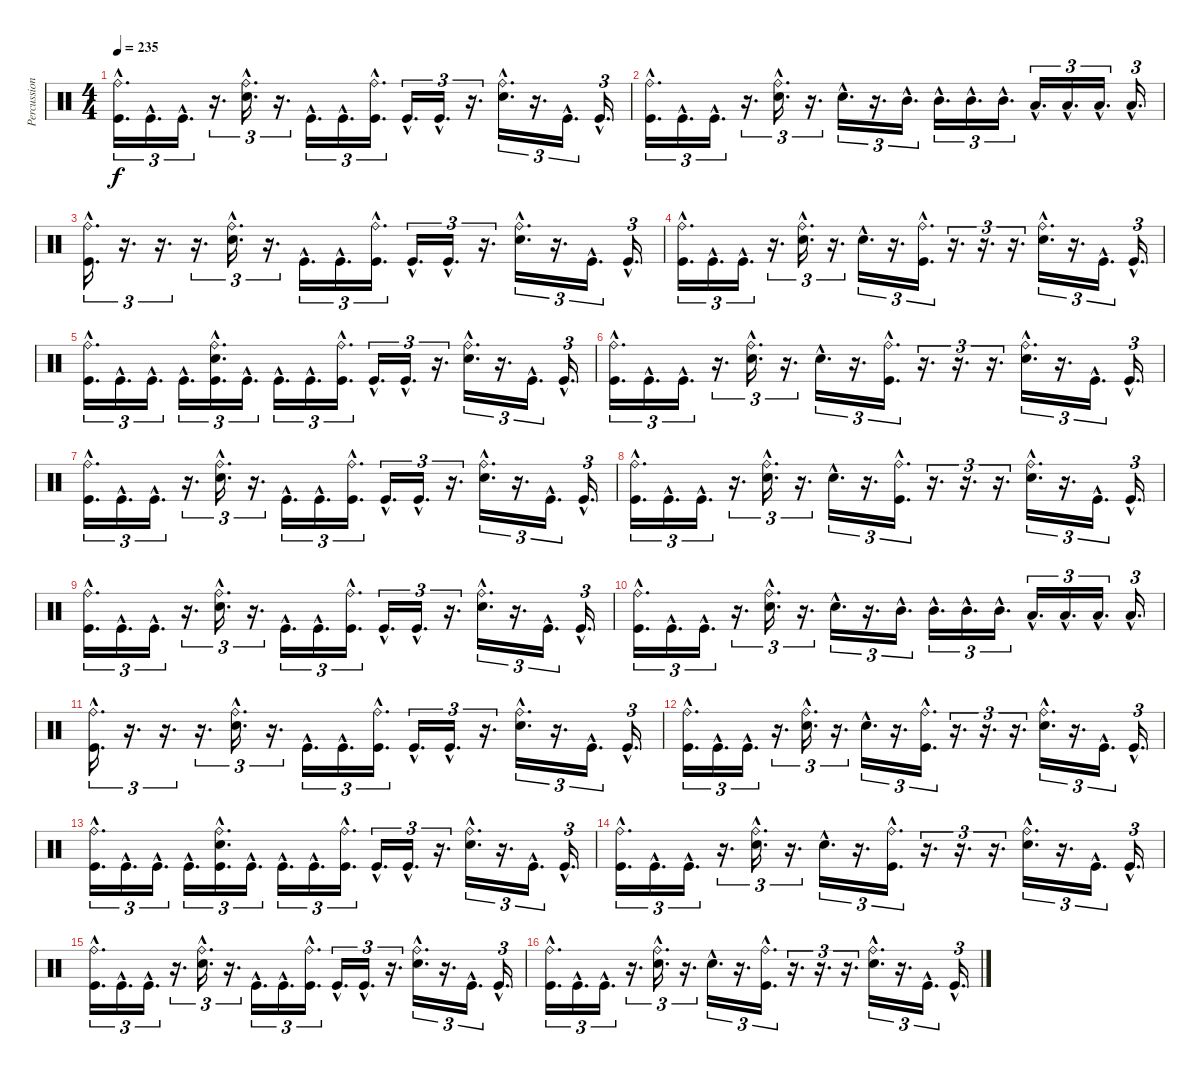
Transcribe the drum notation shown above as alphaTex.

\track ("Percussion" "Percussion") {instrument percussion}
\staff {score}
\articulation defaults
\ts (4 4)
\tempo 235
\clef neutral
\ks c
("Ride (bell)"{hac} "Kick (hit)"{hac}).16{d tu (3 2) dy f} "Kick (hit)"{hac}.16{d tu (3 2)} "Kick (hit)"{hac}.16{d tu (3 2)} r.16{d tu (3 2)} ("Ride (bell)"{hac} "Snare (hit) 2"{hac}).16{d tu (3 2)} r.16{d tu (3 2)} "Kick (hit)"{hac}.16{d tu (3 2)} "Kick (hit)"{hac}.16{d tu (3 2)} ("Ride (bell)"{hac} "Kick (hit)"{hac}).16{d tu (3 2)} "Kick (hit)"{hac}.16{d tu (3 2)} "Kick (hit)"{hac}.16{d tu (3 2)} r.16{d tu (3 2)} ("Ride (bell)"{hac} "Snare (hit) 2"{hac}).16{d tu (3 2)} r.16{d tu (3 2)} "Kick (hit)"{hac}.16{d tu (3 2)} "Kick (hit)"{hac}.16{d tu (3 2)} |
("Ride (bell)"{hac} "Kick (hit)"{hac}).16{d tu (3 2)} "Kick (hit)"{hac}.16{d tu (3 2)} "Kick (hit)"{hac}.16{d tu (3 2)} r.16{d tu (3 2)} ("Ride (bell)"{hac} "Snare (hit) 2"{hac}).16{d tu (3 2)} r.16{d tu (3 2)} "Snare (hit) 2"{hac}.16{d tu (3 2)} r.16{d tu (3 2)} "Mid Tom (hit)"{hac}.16{d tu (3 2)} "Mid Tom (hit)"{hac}.16{d tu (3 2)} "Mid Tom (hit)"{hac}.16{d tu (3 2)} "Mid Tom (hit)"{hac}.16{d tu (3 2)} "Low Tom (hit)"{hac}.16{d tu (3 2)} "Low Tom (hit)"{hac}.16{d tu (3 2)} "Low Tom (hit)"{hac}.16{d tu (3 2)} "Low Tom (hit)"{hac}.16{d tu (3 2)} |
("Ride (bell)"{hac} "Kick (hit)"{hac}).16{d tu (3 2)} r.16{d tu (3 2)} r.16{d tu (3 2)} r.16{d tu (3 2)} ("Ride (bell)"{hac} "Snare (hit) 2"{hac}).16{d tu (3 2)} r.16{d tu (3 2)} "Kick (hit)"{hac}.16{d tu (3 2)} "Kick (hit)"{hac}.16{d tu (3 2)} ("Ride (bell)"{hac} "Kick (hit)"{hac}).16{d tu (3 2)} "Kick (hit)"{hac}.16{d tu (3 2)} "Kick (hit)"{hac}.16{d tu (3 2)} r.16{d tu (3 2)} ("Ride (bell)"{hac} "Snare (hit) 2"{hac}).16{d tu (3 2)} r.16{d tu (3 2)} "Kick (hit)"{hac}.16{d tu (3 2)} "Kick (hit)"{hac}.16{d tu (3 2)} |
("Ride (bell)"{hac} "Kick (hit)"{hac}).16{d tu (3 2)} "Kick (hit)"{hac}.16{d tu (3 2)} "Kick (hit)"{hac}.16{d tu (3 2)} r.16{d tu (3 2)} ("Ride (bell)"{hac} "Snare (hit) 2"{hac}).16{d tu (3 2)} r.16{d tu (3 2)} "Snare (hit) 2"{hac}.16{d tu (3 2)} r.16{d tu (3 2)} ("Ride (bell)"{hac} "Kick (hit)"{hac}).16{d tu (3 2)} r.16{d tu (3 2)} r.16{d tu (3 2)} r.16{d tu (3 2)} ("Ride (bell)"{hac} "Snare (hit) 2"{hac}).16{d tu (3 2)} r.16{d tu (3 2)} "Kick (hit)"{hac}.16{d tu (3 2)} "Kick (hit)"{hac}.16{d tu (3 2)} |
("Ride (bell)"{hac} "Kick (hit)"{hac}).16{d tu (3 2)} "Kick (hit)"{hac}.16{d tu (3 2)} "Kick (hit)"{hac}.16{d tu (3 2)} "Kick (hit)"{hac}.16{d tu (3 2)} ("Ride (bell)"{hac} "Snare (hit) 2"{hac} "Kick (hit)"{hac}).16{d tu (3 2)} "Kick (hit)"{hac}.16{d tu (3 2)} "Kick (hit)"{hac}.16{d tu (3 2)} "Kick (hit)"{hac}.16{d tu (3 2)} ("Ride (bell)"{hac} "Kick (hit)"{hac}).16{d tu (3 2)} "Kick (hit)"{hac}.16{d tu (3 2)} "Kick (hit)"{hac}.16{d tu (3 2)} r.16{d tu (3 2)} ("Ride (bell)"{hac} "Snare (hit) 2"{hac}).16{d tu (3 2)} r.16{d tu (3 2)} "Kick (hit)"{hac}.16{d tu (3 2)} "Kick (hit)"{hac}.16{d tu (3 2)} |
("Ride (bell)"{hac} "Kick (hit)"{hac}).16{d tu (3 2)} "Kick (hit)"{hac}.16{d tu (3 2)} "Kick (hit)"{hac}.16{d tu (3 2)} r.16{d tu (3 2)} ("Ride (bell)"{hac} "Snare (hit) 2"{hac}).16{d tu (3 2)} r.16{d tu (3 2)} "Snare (hit) 2"{hac}.16{d tu (3 2)} r.16{d tu (3 2)} ("Ride (bell)"{hac} "Kick (hit)"{hac}).16{d tu (3 2)} r.16{d tu (3 2)} r.16{d tu (3 2)} r.16{d tu (3 2)} ("Ride (bell)"{hac} "Snare (hit) 2"{hac}).16{d tu (3 2)} r.16{d tu (3 2)} "Kick (hit)"{hac}.16{d tu (3 2)} "Kick (hit)"{hac}.16{d tu (3 2)} |
("Ride (bell)"{hac} "Kick (hit)"{hac}).16{d tu (3 2)} "Kick (hit)"{hac}.16{d tu (3 2)} "Kick (hit)"{hac}.16{d tu (3 2)} r.16{d tu (3 2)} ("Ride (bell)"{hac} "Snare (hit) 2"{hac}).16{d tu (3 2)} r.16{d tu (3 2)} "Kick (hit)"{hac}.16{d tu (3 2)} "Kick (hit)"{hac}.16{d tu (3 2)} ("Ride (bell)"{hac} "Kick (hit)"{hac}).16{d tu (3 2)} "Kick (hit)"{hac}.16{d tu (3 2)} "Kick (hit)"{hac}.16{d tu (3 2)} r.16{d tu (3 2)} ("Ride (bell)"{hac} "Snare (hit) 2"{hac}).16{d tu (3 2)} r.16{d tu (3 2)} "Kick (hit)"{hac}.16{d tu (3 2)} "Kick (hit)"{hac}.16{d tu (3 2)} |
("Ride (bell)"{hac} "Kick (hit)"{hac}).16{d tu (3 2)} "Kick (hit)"{hac}.16{d tu (3 2)} "Kick (hit)"{hac}.16{d tu (3 2)} r.16{d tu (3 2)} ("Ride (bell)"{hac} "Snare (hit) 2"{hac}).16{d tu (3 2)} r.16{d tu (3 2)} "Snare (hit) 2"{hac}.16{d tu (3 2)} r.16{d tu (3 2)} ("Ride (bell)"{hac} "Kick (hit)"{hac}).16{d tu (3 2)} r.16{d tu (3 2)} r.16{d tu (3 2)} r.16{d tu (3 2)} ("Ride (bell)"{hac} "Snare (hit) 2"{hac}).16{d tu (3 2)} r.16{d tu (3 2)} "Kick (hit)"{hac}.16{d tu (3 2)} "Kick (hit)"{hac}.16{d tu (3 2)} |
("Ride (bell)"{hac} "Kick (hit)"{hac}).16{d tu (3 2)} "Kick (hit)"{hac}.16{d tu (3 2)} "Kick (hit)"{hac}.16{d tu (3 2)} r.16{d tu (3 2)} ("Ride (bell)"{hac} "Snare (hit) 2"{hac}).16{d tu (3 2)} r.16{d tu (3 2)} "Kick (hit)"{hac}.16{d tu (3 2)} "Kick (hit)"{hac}.16{d tu (3 2)} ("Ride (bell)"{hac} "Kick (hit)"{hac}).16{d tu (3 2)} "Kick (hit)"{hac}.16{d tu (3 2)} "Kick (hit)"{hac}.16{d tu (3 2)} r.16{d tu (3 2)} ("Ride (bell)"{hac} "Snare (hit) 2"{hac}).16{d tu (3 2)} r.16{d tu (3 2)} "Kick (hit)"{hac}.16{d tu (3 2)} "Kick (hit)"{hac}.16{d tu (3 2)} |
("Ride (bell)"{hac} "Kick (hit)"{hac}).16{d tu (3 2)} "Kick (hit)"{hac}.16{d tu (3 2)} "Kick (hit)"{hac}.16{d tu (3 2)} r.16{d tu (3 2)} ("Ride (bell)"{hac} "Snare (hit) 2"{hac}).16{d tu (3 2)} r.16{d tu (3 2)} "Snare (hit) 2"{hac}.16{d tu (3 2)} r.16{d tu (3 2)} "Mid Tom (hit)"{hac}.16{d tu (3 2)} "Mid Tom (hit)"{hac}.16{d tu (3 2)} "Mid Tom (hit)"{hac}.16{d tu (3 2)} "Mid Tom (hit)"{hac}.16{d tu (3 2)} "Low Tom (hit)"{hac}.16{d tu (3 2)} "Low Tom (hit)"{hac}.16{d tu (3 2)} "Low Tom (hit)"{hac}.16{d tu (3 2)} "Low Tom (hit)"{hac}.16{d tu (3 2)} |
("Ride (bell)"{hac} "Kick (hit)"{hac}).16{d tu (3 2)} r.16{d tu (3 2)} r.16{d tu (3 2)} r.16{d tu (3 2)} ("Ride (bell)"{hac} "Snare (hit) 2"{hac}).16{d tu (3 2)} r.16{d tu (3 2)} "Kick (hit)"{hac}.16{d tu (3 2)} "Kick (hit)"{hac}.16{d tu (3 2)} ("Ride (bell)"{hac} "Kick (hit)"{hac}).16{d tu (3 2)} "Kick (hit)"{hac}.16{d tu (3 2)} "Kick (hit)"{hac}.16{d tu (3 2)} r.16{d tu (3 2)} ("Ride (bell)"{hac} "Snare (hit) 2"{hac}).16{d tu (3 2)} r.16{d tu (3 2)} "Kick (hit)"{hac}.16{d tu (3 2)} "Kick (hit)"{hac}.16{d tu (3 2)} |
("Ride (bell)"{hac} "Kick (hit)"{hac}).16{d tu (3 2)} "Kick (hit)"{hac}.16{d tu (3 2)} "Kick (hit)"{hac}.16{d tu (3 2)} r.16{d tu (3 2)} ("Ride (bell)"{hac} "Snare (hit) 2"{hac}).16{d tu (3 2)} r.16{d tu (3 2)} "Snare (hit) 2"{hac}.16{d tu (3 2)} r.16{d tu (3 2)} ("Ride (bell)"{hac} "Kick (hit)"{hac}).16{d tu (3 2)} r.16{d tu (3 2)} r.16{d tu (3 2)} r.16{d tu (3 2)} ("Ride (bell)"{hac} "Snare (hit) 2"{hac}).16{d tu (3 2)} r.16{d tu (3 2)} "Kick (hit)"{hac}.16{d tu (3 2)} "Kick (hit)"{hac}.16{d tu (3 2)} |
("Ride (bell)"{hac} "Kick (hit)"{hac}).16{d tu (3 2)} "Kick (hit)"{hac}.16{d tu (3 2)} "Kick (hit)"{hac}.16{d tu (3 2)} "Kick (hit)"{hac}.16{d tu (3 2)} ("Ride (bell)"{hac} "Snare (hit) 2"{hac} "Kick (hit)"{hac}).16{d tu (3 2)} "Kick (hit)"{hac}.16{d tu (3 2)} "Kick (hit)"{hac}.16{d tu (3 2)} "Kick (hit)"{hac}.16{d tu (3 2)} ("Ride (bell)"{hac} "Kick (hit)"{hac}).16{d tu (3 2)} "Kick (hit)"{hac}.16{d tu (3 2)} "Kick (hit)"{hac}.16{d tu (3 2)} r.16{d tu (3 2)} ("Ride (bell)"{hac} "Snare (hit) 2"{hac}).16{d tu (3 2)} r.16{d tu (3 2)} "Kick (hit)"{hac}.16{d tu (3 2)} "Kick (hit)"{hac}.16{d tu (3 2)} |
("Ride (bell)"{hac} "Kick (hit)"{hac}).16{d tu (3 2)} "Kick (hit)"{hac}.16{d tu (3 2)} "Kick (hit)"{hac}.16{d tu (3 2)} r.16{d tu (3 2)} ("Ride (bell)"{hac} "Snare (hit) 2"{hac}).16{d tu (3 2)} r.16{d tu (3 2)} "Snare (hit) 2"{hac}.16{d tu (3 2)} r.16{d tu (3 2)} ("Ride (bell)"{hac} "Kick (hit)"{hac}).16{d tu (3 2)} r.16{d tu (3 2)} r.16{d tu (3 2)} r.16{d tu (3 2)} ("Ride (bell)"{hac} "Snare (hit) 2"{hac}).16{d tu (3 2)} r.16{d tu (3 2)} "Kick (hit)"{hac}.16{d tu (3 2)} "Kick (hit)"{hac}.16{d tu (3 2)} |
("Ride (bell)"{hac} "Kick (hit)"{hac}).16{d tu (3 2)} "Kick (hit)"{hac}.16{d tu (3 2)} "Kick (hit)"{hac}.16{d tu (3 2)} r.16{d tu (3 2)} ("Ride (bell)"{hac} "Snare (hit) 2"{hac}).16{d tu (3 2)} r.16{d tu (3 2)} "Kick (hit)"{hac}.16{d tu (3 2)} "Kick (hit)"{hac}.16{d tu (3 2)} ("Ride (bell)"{hac} "Kick (hit)"{hac}).16{d tu (3 2)} "Kick (hit)"{hac}.16{d tu (3 2)} "Kick (hit)"{hac}.16{d tu (3 2)} r.16{d tu (3 2)} ("Ride (bell)"{hac} "Snare (hit) 2"{hac}).16{d tu (3 2)} r.16{d tu (3 2)} "Kick (hit)"{hac}.16{d tu (3 2)} "Kick (hit)"{hac}.16{d tu (3 2)} |
("Ride (bell)"{hac} "Kick (hit)"{hac}).16{d tu (3 2)} "Kick (hit)"{hac}.16{d tu (3 2)} "Kick (hit)"{hac}.16{d tu (3 2)} r.16{d tu (3 2)} ("Ride (bell)"{hac} "Snare (hit) 2"{hac}).16{d tu (3 2)} r.16{d tu (3 2)} "Snare (hit) 2"{hac}.16{d tu (3 2)} r.16{d tu (3 2)} ("Ride (bell)"{hac} "Kick (hit)"{hac}).16{d tu (3 2)} r.16{d tu (3 2)} r.16{d tu (3 2)} r.16{d tu (3 2)} ("Ride (bell)"{hac} "Snare (hit) 2"{hac}).16{d tu (3 2)} r.16{d tu (3 2)} "Kick (hit)"{hac}.16{d tu (3 2)} "Kick (hit)"{hac}.16{d tu (3 2)}
